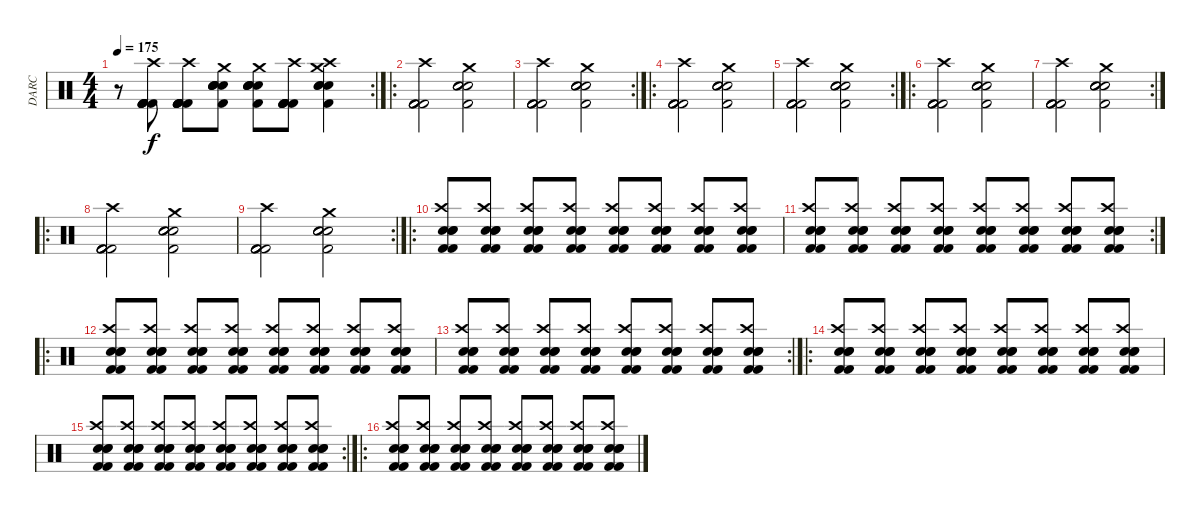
\track ("DARC" "DARC") {instrument percussion}
\staff {score}
\articulation defaults
\rc 2
\ts (4 4)
\tempo 175
\clef neutral
\ks c
r.8{dy f} ("Kick (hit) 2" "Kick (hit) 2" "Kick (hit) 2" "Kick (hit) 2" "Crash high (hit)" "Kick (hit) 2").8 ("Kick (hit) 2" "Kick (hit) 2" "Kick (hit) 2" "Kick (hit) 2" "Crash high (hit)" "Kick (hit) 2").8 ("Kick (hit) 2" "Electric Snare (hit)" "Electric Snare (hit)" "Electric Snare (hit)" "Crash medium (hit)" "Electric Snare (hit)").8 ("Kick (hit) 2" "Electric Snare (hit)" "Electric Snare (hit)" "Electric Snare (hit)" "Crash medium (hit)" "Electric Snare (hit)").8 ("Kick (hit) 2" "Kick (hit) 2" "Kick (hit) 2" "Kick (hit) 2" "Crash high (hit)" "Kick (hit) 2").8 ("Crash high (hit)" "Kick (hit) 2" "Electric Snare (hit)" "Electric Snare (hit)" "Crash medium (hit)" "Electric Snare (hit)").4 |
\ro
("Crash high (hit)" "Kick (hit) 2" "Kick (hit) 2" "Kick (hit) 2" "Kick (hit) 2" "Kick (hit) 2").2 ("Crash medium (hit)" "Kick (hit) 2" "Electric Snare (hit)" "Electric Snare (hit)" "Electric Snare (hit)" "Electric Snare (hit)").2 |
\rc 2
("Crash high (hit)" "Kick (hit) 2" "Kick (hit) 2" "Kick (hit) 2" "Kick (hit) 2" "Kick (hit) 2").2 ("Crash medium (hit)" "Kick (hit) 2" "Electric Snare (hit)" "Electric Snare (hit)" "Electric Snare (hit)" "Electric Snare (hit)").2 |
\ro
("Crash high (hit)" "Kick (hit) 2" "Kick (hit) 2" "Kick (hit) 2" "Kick (hit) 2" "Kick (hit) 2").2 ("Crash medium (hit)" "Kick (hit) 2" "Electric Snare (hit)" "Electric Snare (hit)" "Electric Snare (hit)" "Electric Snare (hit)").2 |
\rc 2
("Crash high (hit)" "Kick (hit) 2" "Kick (hit) 2" "Kick (hit) 2" "Kick (hit) 2" "Kick (hit) 2").2 ("Crash medium (hit)" "Kick (hit) 2" "Electric Snare (hit)" "Electric Snare (hit)" "Electric Snare (hit)" "Electric Snare (hit)").2 |
\ro
("Crash high (hit)" "Kick (hit) 2" "Kick (hit) 2" "Kick (hit) 2" "Kick (hit) 2" "Kick (hit) 2").2 ("Crash medium (hit)" "Kick (hit) 2" "Electric Snare (hit)" "Electric Snare (hit)" "Electric Snare (hit)" "Electric Snare (hit)").2 |
\rc 2
("Crash high (hit)" "Kick (hit) 2" "Kick (hit) 2" "Kick (hit) 2" "Kick (hit) 2" "Kick (hit) 2").2 ("Crash medium (hit)" "Kick (hit) 2" "Electric Snare (hit)" "Electric Snare (hit)" "Electric Snare (hit)" "Electric Snare (hit)").2 |
\ro
("Crash high (hit)" "Kick (hit) 2" "Kick (hit) 2" "Kick (hit) 2" "Kick (hit) 2" "Kick (hit) 2").2 ("Crash medium (hit)" "Kick (hit) 2" "Electric Snare (hit)" "Electric Snare (hit)" "Electric Snare (hit)" "Electric Snare (hit)").2 |
\rc 2
("Crash high (hit)" "Kick (hit) 2" "Kick (hit) 2" "Kick (hit) 2" "Kick (hit) 2" "Kick (hit) 2").2 ("Crash medium (hit)" "Kick (hit) 2" "Electric Snare (hit)" "Electric Snare (hit)" "Electric Snare (hit)" "Electric Snare (hit)").2 |
\ro
("Kick (hit) 2" "Electric Snare (hit)" "Electric Snare (hit)" "Kick (hit) 2" "Crash high (hit)" "Electric Snare (hit)").8 ("Kick (hit) 2" "Electric Snare (hit)" "Electric Snare (hit)" "Kick (hit) 2" "Crash high (hit)" "Electric Snare (hit)").8 ("Kick (hit) 2" "Electric Snare (hit)" "Electric Snare (hit)" "Kick (hit) 2" "Crash high (hit)" "Electric Snare (hit)").8 ("Kick (hit) 2" "Electric Snare (hit)" "Electric Snare (hit)" "Kick (hit) 2" "Crash high (hit)" "Electric Snare (hit)").8 ("Kick (hit) 2" "Electric Snare (hit)" "Electric Snare (hit)" "Kick (hit) 2" "Crash high (hit)" "Electric Snare (hit)").8 ("Kick (hit) 2" "Electric Snare (hit)" "Electric Snare (hit)" "Kick (hit) 2" "Crash high (hit)" "Electric Snare (hit)").8 ("Kick (hit) 2" "Electric Snare (hit)" "Electric Snare (hit)" "Kick (hit) 2" "Crash high (hit)" "Electric Snare (hit)").8 ("Kick (hit) 2" "Electric Snare (hit)" "Electric Snare (hit)" "Kick (hit) 2" "Crash high (hit)" "Electric Snare (hit)").8 |
\rc 2
("Kick (hit) 2" "Electric Snare (hit)" "Electric Snare (hit)" "Kick (hit) 2" "Crash high (hit)" "Electric Snare (hit)").8 ("Kick (hit) 2" "Electric Snare (hit)" "Electric Snare (hit)" "Kick (hit) 2" "Crash high (hit)" "Electric Snare (hit)").8 ("Kick (hit) 2" "Electric Snare (hit)" "Electric Snare (hit)" "Kick (hit) 2" "Crash high (hit)" "Electric Snare (hit)").8 ("Kick (hit) 2" "Electric Snare (hit)" "Electric Snare (hit)" "Kick (hit) 2" "Crash high (hit)" "Electric Snare (hit)").8 ("Kick (hit) 2" "Electric Snare (hit)" "Electric Snare (hit)" "Kick (hit) 2" "Crash high (hit)" "Electric Snare (hit)").8 ("Kick (hit) 2" "Electric Snare (hit)" "Electric Snare (hit)" "Kick (hit) 2" "Crash high (hit)" "Electric Snare (hit)").8 ("Kick (hit) 2" "Electric Snare (hit)" "Electric Snare (hit)" "Kick (hit) 2" "Crash high (hit)" "Electric Snare (hit)").8 ("Kick (hit) 2" "Electric Snare (hit)" "Electric Snare (hit)" "Kick (hit) 2" "Crash high (hit)" "Electric Snare (hit)").8 |
\ro
("Kick (hit) 2" "Electric Snare (hit)" "Electric Snare (hit)" "Kick (hit) 2" "Crash high (hit)" "Electric Snare (hit)").8 ("Kick (hit) 2" "Electric Snare (hit)" "Electric Snare (hit)" "Kick (hit) 2" "Crash high (hit)" "Electric Snare (hit)").8 ("Kick (hit) 2" "Electric Snare (hit)" "Electric Snare (hit)" "Kick (hit) 2" "Crash high (hit)" "Electric Snare (hit)").8 ("Kick (hit) 2" "Electric Snare (hit)" "Electric Snare (hit)" "Kick (hit) 2" "Crash high (hit)" "Electric Snare (hit)").8 ("Kick (hit) 2" "Electric Snare (hit)" "Electric Snare (hit)" "Kick (hit) 2" "Crash high (hit)" "Electric Snare (hit)").8 ("Kick (hit) 2" "Electric Snare (hit)" "Electric Snare (hit)" "Kick (hit) 2" "Crash high (hit)" "Electric Snare (hit)").8 ("Kick (hit) 2" "Electric Snare (hit)" "Electric Snare (hit)" "Kick (hit) 2" "Crash high (hit)" "Electric Snare (hit)").8 ("Kick (hit) 2" "Electric Snare (hit)" "Electric Snare (hit)" "Kick (hit) 2" "Crash high (hit)" "Electric Snare (hit)").8 |
\rc 2
("Kick (hit) 2" "Electric Snare (hit)" "Electric Snare (hit)" "Kick (hit) 2" "Crash high (hit)" "Electric Snare (hit)").8 ("Kick (hit) 2" "Electric Snare (hit)" "Electric Snare (hit)" "Kick (hit) 2" "Crash high (hit)" "Electric Snare (hit)").8 ("Kick (hit) 2" "Electric Snare (hit)" "Electric Snare (hit)" "Kick (hit) 2" "Crash high (hit)" "Electric Snare (hit)").8 ("Kick (hit) 2" "Electric Snare (hit)" "Electric Snare (hit)" "Kick (hit) 2" "Crash high (hit)" "Electric Snare (hit)").8 ("Kick (hit) 2" "Electric Snare (hit)" "Electric Snare (hit)" "Kick (hit) 2" "Crash high (hit)" "Electric Snare (hit)").8 ("Kick (hit) 2" "Electric Snare (hit)" "Electric Snare (hit)" "Kick (hit) 2" "Crash high (hit)" "Electric Snare (hit)").8 ("Kick (hit) 2" "Electric Snare (hit)" "Electric Snare (hit)" "Kick (hit) 2" "Crash high (hit)" "Electric Snare (hit)").8 ("Kick (hit) 2" "Electric Snare (hit)" "Electric Snare (hit)" "Kick (hit) 2" "Crash high (hit)" "Electric Snare (hit)").8 |
\ro
("Kick (hit) 2" "Electric Snare (hit)" "Electric Snare (hit)" "Kick (hit) 2" "Crash high (hit)" "Electric Snare (hit)").8 ("Kick (hit) 2" "Electric Snare (hit)" "Electric Snare (hit)" "Kick (hit) 2" "Crash high (hit)" "Electric Snare (hit)").8 ("Kick (hit) 2" "Electric Snare (hit)" "Electric Snare (hit)" "Kick (hit) 2" "Crash high (hit)" "Electric Snare (hit)").8 ("Kick (hit) 2" "Electric Snare (hit)" "Electric Snare (hit)" "Kick (hit) 2" "Crash high (hit)" "Electric Snare (hit)").8 ("Kick (hit) 2" "Electric Snare (hit)" "Electric Snare (hit)" "Kick (hit) 2" "Crash high (hit)" "Electric Snare (hit)").8 ("Kick (hit) 2" "Electric Snare (hit)" "Electric Snare (hit)" "Kick (hit) 2" "Crash high (hit)" "Electric Snare (hit)").8 ("Kick (hit) 2" "Electric Snare (hit)" "Electric Snare (hit)" "Kick (hit) 2" "Crash high (hit)" "Electric Snare (hit)").8 ("Kick (hit) 2" "Electric Snare (hit)" "Electric Snare (hit)" "Kick (hit) 2" "Crash high (hit)" "Electric Snare (hit)").8 |
\rc 2
("Kick (hit) 2" "Electric Snare (hit)" "Electric Snare (hit)" "Kick (hit) 2" "Crash high (hit)" "Electric Snare (hit)").8 ("Kick (hit) 2" "Electric Snare (hit)" "Electric Snare (hit)" "Kick (hit) 2" "Crash high (hit)" "Electric Snare (hit)").8 ("Kick (hit) 2" "Electric Snare (hit)" "Electric Snare (hit)" "Kick (hit) 2" "Crash high (hit)" "Electric Snare (hit)").8 ("Kick (hit) 2" "Electric Snare (hit)" "Electric Snare (hit)" "Kick (hit) 2" "Crash high (hit)" "Electric Snare (hit)").8 ("Kick (hit) 2" "Electric Snare (hit)" "Electric Snare (hit)" "Kick (hit) 2" "Crash high (hit)" "Electric Snare (hit)").8 ("Kick (hit) 2" "Electric Snare (hit)" "Electric Snare (hit)" "Kick (hit) 2" "Crash high (hit)" "Electric Snare (hit)").8 ("Kick (hit) 2" "Electric Snare (hit)" "Electric Snare (hit)" "Kick (hit) 2" "Crash high (hit)" "Electric Snare (hit)").8 ("Kick (hit) 2" "Electric Snare (hit)" "Electric Snare (hit)" "Kick (hit) 2" "Crash high (hit)" "Electric Snare (hit)").8 |
\ro
("Kick (hit) 2" "Electric Snare (hit)" "Electric Snare (hit)" "Kick (hit) 2" "Crash high (hit)" "Electric Snare (hit)").8 ("Kick (hit) 2" "Electric Snare (hit)" "Electric Snare (hit)" "Kick (hit) 2" "Crash high (hit)" "Electric Snare (hit)").8 ("Kick (hit) 2" "Electric Snare (hit)" "Electric Snare (hit)" "Kick (hit) 2" "Crash high (hit)" "Electric Snare (hit)").8 ("Kick (hit) 2" "Electric Snare (hit)" "Electric Snare (hit)" "Kick (hit) 2" "Crash high (hit)" "Electric Snare (hit)").8 ("Kick (hit) 2" "Electric Snare (hit)" "Electric Snare (hit)" "Kick (hit) 2" "Crash high (hit)" "Electric Snare (hit)").8 ("Kick (hit) 2" "Electric Snare (hit)" "Electric Snare (hit)" "Kick (hit) 2" "Crash high (hit)" "Electric Snare (hit)").8 ("Kick (hit) 2" "Electric Snare (hit)" "Electric Snare (hit)" "Kick (hit) 2" "Crash high (hit)" "Electric Snare (hit)").8 ("Kick (hit) 2" "Electric Snare (hit)" "Electric Snare (hit)" "Kick (hit) 2" "Crash high (hit)" "Electric Snare (hit)").8
